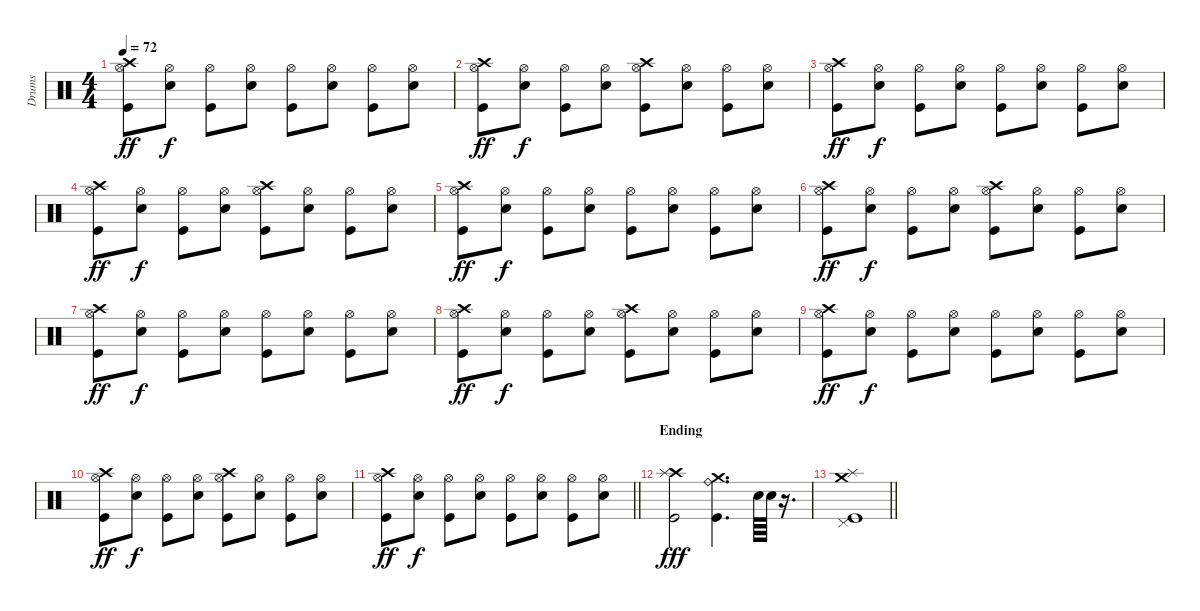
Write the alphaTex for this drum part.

\track ("Drums" "Drums") {instrument percussion}
\staff {score}
\articulation defaults
\ts (4 4)
\tempo 72
\clef neutral
\ks c
("Crash high (hit)" "Hi-Hat (open)" "Kick (hit)").8{dy ff} ("Electric Snare (hit)" "Hi-Hat (open)").8{dy f} ("Hi-Hat (open)" "Kick (hit)").8 ("Electric Snare (hit)" "Hi-Hat (open)").8 ("Hi-Hat (open)" "Kick (hit)").8 ("Electric Snare (hit)" "Hi-Hat (open)").8 ("Hi-Hat (open)" "Kick (hit)").8 ("Electric Snare (hit)" "Hi-Hat (open)").8 |
("Crash high (hit)" "Hi-Hat (open)" "Kick (hit)").8{dy ff} ("Electric Snare (hit)" "Hi-Hat (open)").8{dy f} ("Hi-Hat (open)" "Kick (hit)").8 ("Electric Snare (hit)" "Hi-Hat (open)").8 ("Crash high (hit)" "Hi-Hat (open)" "Kick (hit)").8 ("Electric Snare (hit)" "Hi-Hat (open)").8 ("Hi-Hat (open)" "Kick (hit)").8 ("Electric Snare (hit)" "Hi-Hat (open)").8 |
("Crash high (hit)" "Hi-Hat (open)" "Kick (hit)").8{dy ff} ("Electric Snare (hit)" "Hi-Hat (open)").8{dy f} ("Hi-Hat (open)" "Kick (hit)").8 ("Electric Snare (hit)" "Hi-Hat (open)").8 ("Hi-Hat (open)" "Kick (hit)").8 ("Electric Snare (hit)" "Hi-Hat (open)").8 ("Hi-Hat (open)" "Kick (hit)").8 ("Electric Snare (hit)" "Hi-Hat (open)").8 |
("Crash high (hit)" "Hi-Hat (open)" "Kick (hit)").8{dy ff} ("Electric Snare (hit)" "Hi-Hat (open)").8{dy f} ("Hi-Hat (open)" "Kick (hit)").8 ("Electric Snare (hit)" "Hi-Hat (open)").8 ("Crash high (hit)" "Hi-Hat (open)" "Kick (hit)").8 ("Electric Snare (hit)" "Hi-Hat (open)").8 ("Hi-Hat (open)" "Kick (hit)").8 ("Electric Snare (hit)" "Hi-Hat (open)").8 |
("Crash high (hit)" "Hi-Hat (open)" "Kick (hit)").8{dy ff} ("Electric Snare (hit)" "Hi-Hat (open)").8{dy f} ("Hi-Hat (open)" "Kick (hit)").8 ("Electric Snare (hit)" "Hi-Hat (open)").8 ("Hi-Hat (open)" "Kick (hit)").8 ("Electric Snare (hit)" "Hi-Hat (open)").8 ("Hi-Hat (open)" "Kick (hit)").8 ("Electric Snare (hit)" "Hi-Hat (open)").8 |
("Crash high (hit)" "Hi-Hat (open)" "Kick (hit)").8{dy ff} ("Electric Snare (hit)" "Hi-Hat (open)").8{dy f} ("Hi-Hat (open)" "Kick (hit)").8 ("Electric Snare (hit)" "Hi-Hat (open)").8 ("Crash high (hit)" "Hi-Hat (open)" "Kick (hit)").8 ("Electric Snare (hit)" "Hi-Hat (open)").8 ("Hi-Hat (open)" "Kick (hit)").8 ("Electric Snare (hit)" "Hi-Hat (open)").8 |
("Crash high (hit)" "Hi-Hat (open)" "Kick (hit)").8{dy ff} ("Electric Snare (hit)" "Hi-Hat (open)").8{dy f} ("Hi-Hat (open)" "Kick (hit)").8 ("Electric Snare (hit)" "Hi-Hat (open)").8 ("Hi-Hat (open)" "Kick (hit)").8 ("Electric Snare (hit)" "Hi-Hat (open)").8 ("Hi-Hat (open)" "Kick (hit)").8 ("Electric Snare (hit)" "Hi-Hat (open)").8 |
("Crash high (hit)" "Hi-Hat (open)" "Kick (hit)").8{dy ff} ("Electric Snare (hit)" "Hi-Hat (open)").8{dy f} ("Hi-Hat (open)" "Kick (hit)").8 ("Electric Snare (hit)" "Hi-Hat (open)").8 ("Crash high (hit)" "Hi-Hat (open)" "Kick (hit)").8 ("Electric Snare (hit)" "Hi-Hat (open)").8 ("Hi-Hat (open)" "Kick (hit)").8 ("Electric Snare (hit)" "Hi-Hat (open)").8 |
("Crash high (hit)" "Hi-Hat (open)" "Kick (hit)").8{dy ff} ("Electric Snare (hit)" "Hi-Hat (open)").8{dy f} ("Hi-Hat (open)" "Kick (hit)").8 ("Electric Snare (hit)" "Hi-Hat (open)").8 ("Hi-Hat (open)" "Kick (hit)").8 ("Electric Snare (hit)" "Hi-Hat (open)").8 ("Hi-Hat (open)" "Kick (hit)").8 ("Electric Snare (hit)" "Hi-Hat (open)").8 |
("Crash high (hit)" "Hi-Hat (open)" "Kick (hit)").8{dy ff} ("Electric Snare (hit)" "Hi-Hat (open)").8{dy f} ("Hi-Hat (open)" "Kick (hit)").8 ("Electric Snare (hit)" "Hi-Hat (open)").8 ("Crash high (hit)" "Hi-Hat (open)" "Kick (hit)").8 ("Electric Snare (hit)" "Hi-Hat (open)").8 ("Hi-Hat (open)" "Kick (hit)").8 ("Electric Snare (hit)" "Hi-Hat (open)").8 |
\barLineRight lightlight
("Crash high (hit)" "Hi-Hat (open)" "Kick (hit)").8{dy ff} ("Electric Snare (hit)" "Hi-Hat (open)").8{dy f} ("Hi-Hat (open)" "Kick (hit)").8 ("Electric Snare (hit)" "Hi-Hat (open)").8 ("Hi-Hat (open)" "Kick (hit)").8 ("Electric Snare (hit)" "Hi-Hat (open)").8 ("Hi-Hat (open)" "Kick (hit)").8 ("Electric Snare (hit)" "Hi-Hat (open)").8 |
\section ("" "Ending")
("Crash high (hit)" "Splash (hit)" "Kick (hit)").2{dy fff} ("Crash medium (hit)" "Ride (bell)" "Kick (hit)").4{d} "Electric Snare (hit)".64 "Electric Snare (hit)".64 r.16{d} |
\barLineRight lightlight
("Crash medium (hit)" "Splash (hit)" "Pedal Hi-Hat (hit)" "Kick (hit)").1
